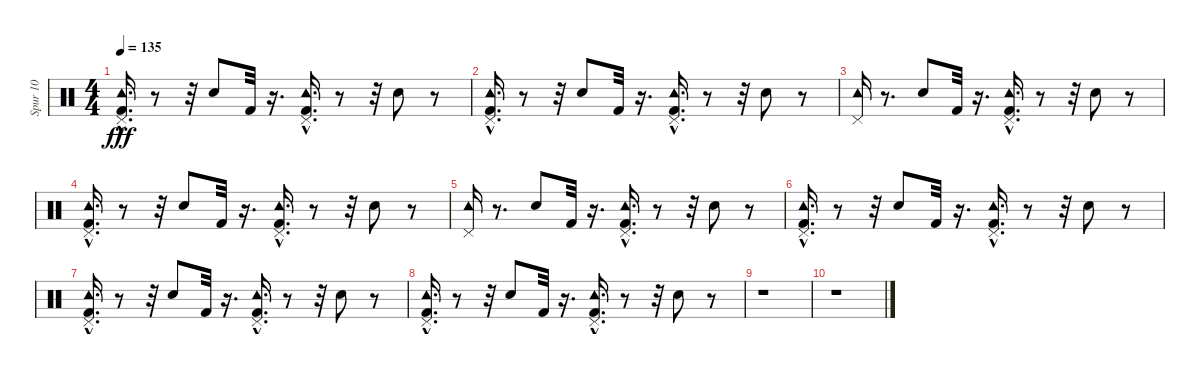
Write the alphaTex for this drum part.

\track ("Spur 10" "Spur 10") {instrument percussion}
\staff {score}
\articulation defaults
\ts (4 4)
\tempo 135
\clef neutral
\ks c
("Pedal Hi-Hat (hit)" "Kick (hit) 2"{hac} "Tambourine (hit)").16{d dy fff} r.8 r.32 "Electric Snare (hit)".8 "Kick (hit) 2".32 r.16{d} ("Kick (hit) 2"{hac} "Tambourine (hit)" "Pedal Hi-Hat (hit)").16{d} r.8 r.32 "Electric Snare (hit)".8 r.8 |
("Pedal Hi-Hat (hit)" "Tambourine (hit)" "Kick (hit) 2"{hac}).16{d} r.8 r.32 "Electric Snare (hit)".8 "Kick (hit) 2".32 r.16{d} ("Kick (hit) 2"{hac} "Tambourine (hit)" "Pedal Hi-Hat (hit)").16{d} r.8 r.32 "Electric Snare (hit)".8 r.8 |
("Pedal Hi-Hat (hit)" "Tambourine (hit)").16{volume 12} r.8{d} "Electric Snare (hit)".8{volume 10} "Kick (hit) 2".32 r.16{d} ("Kick (hit) 2"{hac} "Tambourine (hit)" "Pedal Hi-Hat (hit)").16{d volume 9} r.8 r.32 "Electric Snare (hit)".8{volume 9} r.8 |
("Tambourine (hit)" "Kick (hit) 2"{hac} "Pedal Hi-Hat (hit)").16{d volume 8} r.8 r.32 "Electric Snare (hit)".8{volume 8} "Kick (hit) 2".32 r.16{d} ("Kick (hit) 2"{hac} "Tambourine (hit)" "Pedal Hi-Hat (hit)").16{d volume 7} r.8 r.32 "Electric Snare (hit)".8{volume 6} r.8 |
("Pedal Hi-Hat (hit)" "Tambourine (hit)").16{volume 6} r.8{d} "Electric Snare (hit)".8{volume 5} "Kick (hit) 2".32 r.16{d} ("Pedal Hi-Hat (hit)" "Tambourine (hit)" "Kick (hit) 2"{hac}).16{d volume 4} r.8 r.32 "Electric Snare (hit)".8{volume 4} r.8 |
("Kick (hit) 2"{hac} "Pedal Hi-Hat (hit)" "Tambourine (hit)").16{d volume 3} r.8 r.32 "Electric Snare (hit)".8{volume 2} "Kick (hit) 2".32 r.16{d} ("Pedal Hi-Hat (hit)" "Kick (hit) 2"{hac} "Tambourine (hit)").16{d volume 2} r.8 r.32 "Electric Snare (hit)".8{volume 1} r.8 |
("Kick (hit) 2"{hac} "Tambourine (hit)" "Pedal Hi-Hat (hit)").16{d} r.8 r.32 "Electric Snare (hit)".8 "Kick (hit) 2".32 r.16{d} ("Pedal Hi-Hat (hit)" "Kick (hit) 2"{hac} "Tambourine (hit)").16{d} r.8 r.32 "Electric Snare (hit)".8{volume 1} r.8 |
("Pedal Hi-Hat (hit)" "Tambourine (hit)" "Kick (hit) 2"{hac}).16{d volume 0} r.8 r.32 "Electric Snare (hit)".8 "Kick (hit) 2".32 r.16{d} ("Tambourine (hit)" "Kick (hit) 2"{hac} "Pedal Hi-Hat (hit)").16{d} r.8 r.32 "Electric Snare (hit)".8 r.8 |
r.1 |
r.1
